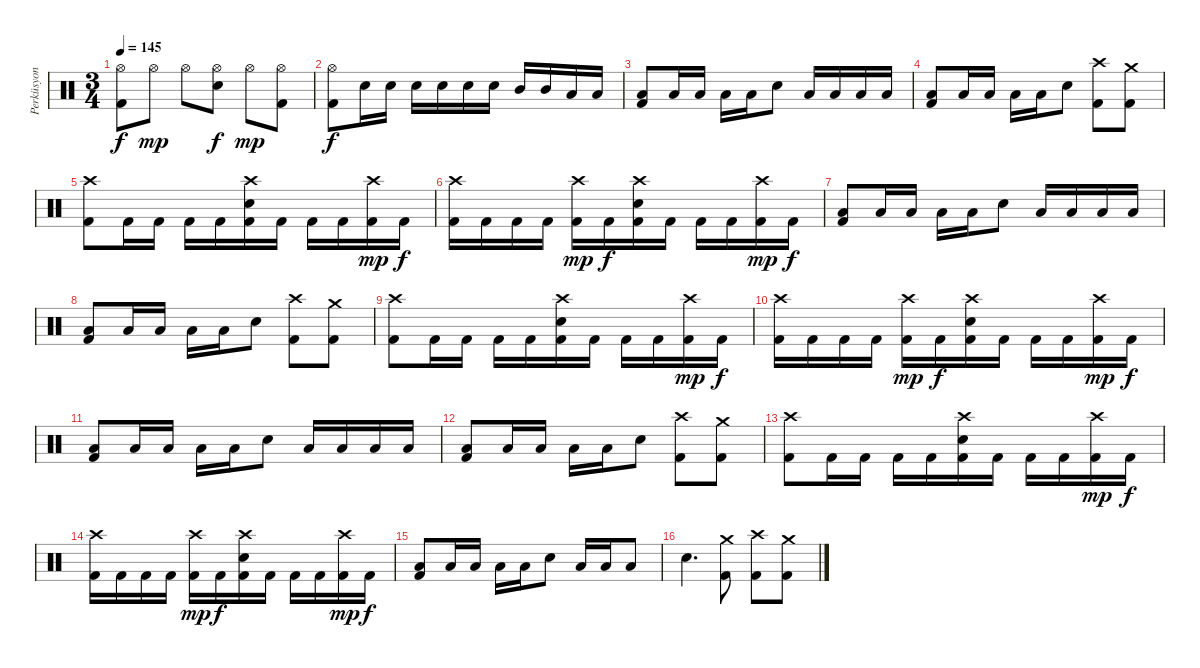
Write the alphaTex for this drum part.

\track ("Perküsyon" "Perküsyon") {instrument percussion}
\staff {score}
\articulation defaults
\ts (3 4)
\tempo 145
\clef neutral
\ks c
("Hi-Hat (open)" "Kick (hit) 2").8{dy f} "Hi-Hat (open)".8{dy mp} "Hi-Hat (open)".8 ("Snare (hit) 2" "Hi-Hat (open)").8{dy f} "Hi-Hat (open)".8{dy mp} ("Hi-Hat (open)" "Kick (hit) 2").8 |
("Hi-Hat (open)" "Kick (hit) 2").8{dy f} "Snare (hit) 2".16 "Snare (hit) 2".16 "Snare (hit) 2".16 "Snare (hit) 2".16 "Snare (hit) 2".16 "Snare (hit) 2".16 "Mid Tom (hit)".16 "Mid Tom (hit)".16 "Low Tom (hit)".16 "Low Tom (hit)".16 |
("Low Tom (hit)" "Kick (hit) 2").8 "Low Tom (hit)".16 "Low Tom (hit)".16 "Low Tom (hit)".16 "Low Tom (hit)".16 "Snare (hit) 2".8 "Low Tom (hit)".16 "Low Tom (hit)".16 "Low Tom (hit)".16 "Low Tom (hit)".16 |
("Low Tom (hit)" "Kick (hit) 2").8 "Low Tom (hit)".16 "Low Tom (hit)".16 "Low Tom (hit)".16 "Low Tom (hit)".16 "Snare (hit) 2".8 ("Crash high (hit)" "Kick (hit) 2").8 ("Crash medium (hit)" "Kick (hit) 2").8 |
("Crash high (hit)" "Kick (hit) 2").8 "Kick (hit) 2".16 "Kick (hit) 2".16 "Kick (hit) 2".16 "Kick (hit) 2".16 ("Crash high (hit)" "Snare (hit) 2" "Kick (hit) 2").16 "Kick (hit) 2".16 "Kick (hit) 2".16 "Kick (hit) 2".16 ("Crash high (hit)" "Kick (hit) 2").16{dy mp} "Kick (hit) 2".16{dy f} |
("Crash high (hit)" "Kick (hit) 2").16 "Kick (hit) 2".16 "Kick (hit) 2".16 "Kick (hit) 2".16 ("Crash high (hit)" "Kick (hit) 2").16{dy mp} "Kick (hit) 2".16{dy f} ("Crash high (hit)" "Snare (hit) 2" "Kick (hit) 2").16 "Kick (hit) 2".16 "Kick (hit) 2".16 "Kick (hit) 2".16 ("Crash high (hit)" "Kick (hit) 2").16{dy mp} "Kick (hit) 2".16{dy f} |
("Low Tom (hit)" "Kick (hit) 2").8 "Low Tom (hit)".16 "Low Tom (hit)".16 "Low Tom (hit)".16 "Low Tom (hit)".16 "Snare (hit) 2".8 "Low Tom (hit)".16 "Low Tom (hit)".16 "Low Tom (hit)".16 "Low Tom (hit)".16 |
("Low Tom (hit)" "Kick (hit) 2").8 "Low Tom (hit)".16 "Low Tom (hit)".16 "Low Tom (hit)".16 "Low Tom (hit)".16 "Snare (hit) 2".8 ("Crash high (hit)" "Kick (hit) 2").8 ("Crash medium (hit)" "Kick (hit) 2").8 |
("Crash high (hit)" "Kick (hit) 2").8 "Kick (hit) 2".16 "Kick (hit) 2".16 "Kick (hit) 2".16 "Kick (hit) 2".16 ("Crash high (hit)" "Snare (hit) 2" "Kick (hit) 2").16 "Kick (hit) 2".16 "Kick (hit) 2".16 "Kick (hit) 2".16 ("Crash high (hit)" "Kick (hit) 2").16{dy mp} "Kick (hit) 2".16{dy f} |
("Crash high (hit)" "Kick (hit) 2").16 "Kick (hit) 2".16 "Kick (hit) 2".16 "Kick (hit) 2".16 ("Crash high (hit)" "Kick (hit) 2").16{dy mp} "Kick (hit) 2".16{dy f} ("Crash high (hit)" "Snare (hit) 2" "Kick (hit) 2").16 "Kick (hit) 2".16 "Kick (hit) 2".16 "Kick (hit) 2".16 ("Crash high (hit)" "Kick (hit) 2").16{dy mp} "Kick (hit) 2".16{dy f} |
("Low Tom (hit)" "Kick (hit) 2").8 "Low Tom (hit)".16 "Low Tom (hit)".16 "Low Tom (hit)".16 "Low Tom (hit)".16 "Snare (hit) 2".8 "Low Tom (hit)".16 "Low Tom (hit)".16 "Low Tom (hit)".16 "Low Tom (hit)".16 |
("Low Tom (hit)" "Kick (hit) 2").8 "Low Tom (hit)".16 "Low Tom (hit)".16 "Low Tom (hit)".16 "Low Tom (hit)".16 "Snare (hit) 2".8 ("Crash high (hit)" "Kick (hit) 2").8 ("Crash medium (hit)" "Kick (hit) 2").8 |
("Crash high (hit)" "Kick (hit) 2").8 "Kick (hit) 2".16 "Kick (hit) 2".16 "Kick (hit) 2".16 "Kick (hit) 2".16 ("Crash high (hit)" "Snare (hit) 2" "Kick (hit) 2").16 "Kick (hit) 2".16 "Kick (hit) 2".16 "Kick (hit) 2".16 ("Crash high (hit)" "Kick (hit) 2").16{dy mp} "Kick (hit) 2".16{dy f} |
("Crash high (hit)" "Kick (hit) 2").16 "Kick (hit) 2".16 "Kick (hit) 2".16 "Kick (hit) 2".16 ("Crash high (hit)" "Kick (hit) 2").16{dy mp} "Kick (hit) 2".16{dy f} ("Crash high (hit)" "Snare (hit) 2" "Kick (hit) 2").16 "Kick (hit) 2".16 "Kick (hit) 2".16 "Kick (hit) 2".16 ("Crash high (hit)" "Kick (hit) 2").16{dy mp} "Kick (hit) 2".16{dy f} |
("Low Tom (hit)" "Kick (hit) 2").8 "Low Tom (hit)".16 "Low Tom (hit)".16 "Low Tom (hit)".16 "Low Tom (hit)".16 "Snare (hit) 2".8 "Low Tom (hit)".16 "Low Tom (hit)".16 "Low Tom (hit)".8 |
"Snare (hit) 2".4{d} ("Crash medium (hit)" "Kick (hit) 2").8 ("Crash high (hit)" "Kick (hit) 2").8 ("Crash medium (hit)" "Kick (hit) 2").8
